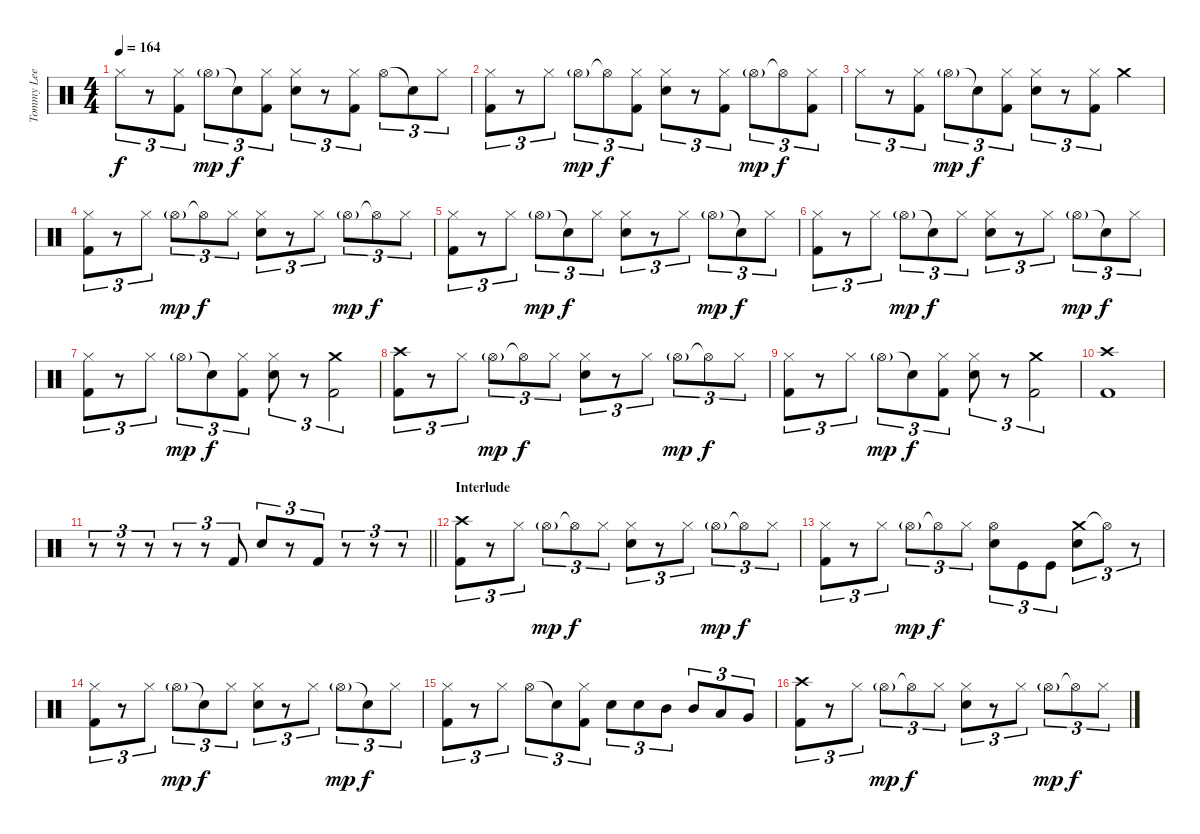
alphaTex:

\track ("Tommy Lee" "Tommy Lee") {instrument percussion}
\staff {score}
\articulation defaults
\ts (4 4)
\tempo 164
\clef neutral
\ks c "Hi-Hat (closed)".8{tu (3 2) dy f}
r.8{tu (3 2)} ("Hi-Hat (closed)" "Kick (hit) 2").8{tu (3 2)} "Hi-Hat (open)"{g}.8{tu (3 2) dy mp} "Snare (hit)"{t}.8{tu (3 2) dy f} ("Hi-Hat (closed)" "Kick (hit) 2").8{tu (3 2)} ("Hi-Hat (closed)" "Snare (hit) 2").8{tu (3 2)} r.8{tu (3 2)} ("Hi-Hat (closed)" "Kick (hit) 2").8{tu (3 2)} "Hi-Hat (open)".8{tu (3 2)} "Snare (hit)"{t}.8{tu (3 2)} "Hi-Hat (closed)".8{tu (3 2)} |
("Hi-Hat (closed)" "Kick (hit) 2").8{tu (3 2)} r.8{tu (3 2)} "Hi-Hat (closed)".8{tu (3 2)} "Hi-Hat (open)"{g}.8{tu (3 2) dy mp} "Hi-Hat (open)"{t}.8{tu (3 2) dy f} ("Hi-Hat (closed)" "Kick (hit) 2").8{tu (3 2)} ("Hi-Hat (closed)" "Snare (hit) 2").8{tu (3 2)} r.8{tu (3 2)} ("Hi-Hat (closed)" "Kick (hit) 2").8{tu (3 2)} "Hi-Hat (open)"{g}.8{tu (3 2) dy mp} "Hi-Hat (open)"{t}.8{tu (3 2) dy f} ("Hi-Hat (closed)" "Kick (hit) 2").8{tu (3 2)} |
"Hi-Hat (closed)".8{tu (3 2)} r.8{tu (3 2)} ("Hi-Hat (closed)" "Kick (hit) 2").8{tu (3 2)} "Hi-Hat (open)"{g}.8{tu (3 2) dy mp} "Snare (hit)"{t}.8{tu (3 2) dy f} ("Hi-Hat (closed)" "Kick (hit) 2").8{tu (3 2)} ("Hi-Hat (closed)" "Snare (hit) 2").8{tu (3 2)} r.8{tu (3 2)} ("Hi-Hat (closed)" "Kick (hit) 2").8{tu (3 2)} "Crash medium (hit)".4 |
("Hi-Hat (closed)" "Kick (hit) 2").8{tu (3 2)} r.8{tu (3 2)} "Hi-Hat (closed)".8{tu (3 2)} "Hi-Hat (open)"{g}.8{tu (3 2) dy mp} "Hi-Hat (open)"{t}.8{tu (3 2) dy f} "Hi-Hat (closed)".8{tu (3 2)} ("Hi-Hat (closed)" "Snare (hit) 2").8{tu (3 2)} r.8{tu (3 2)} "Hi-Hat (closed)".8{tu (3 2)} "Hi-Hat (open)"{g}.8{tu (3 2) dy mp} "Hi-Hat (open)"{t}.8{tu (3 2) dy f} "Hi-Hat (closed)".8{tu (3 2)} |
("Hi-Hat (closed)" "Kick (hit) 2").8{tu (3 2)} r.8{tu (3 2)} "Hi-Hat (closed)".8{tu (3 2)} "Hi-Hat (open)"{g}.8{tu (3 2) dy mp} "Snare (hit)"{t}.8{tu (3 2) dy f} "Hi-Hat (closed)".8{tu (3 2)} ("Hi-Hat (closed)" "Snare (hit) 2").8{tu (3 2)} r.8{tu (3 2)} "Hi-Hat (closed)".8{tu (3 2)} "Hi-Hat (open)"{g}.8{tu (3 2) dy mp} "Snare (hit)"{t}.8{tu (3 2) dy f} "Hi-Hat (closed)".8{tu (3 2)} |
("Hi-Hat (closed)" "Kick (hit) 2").8{tu (3 2)} r.8{tu (3 2)} "Hi-Hat (closed)".8{tu (3 2)} "Hi-Hat (open)"{g}.8{tu (3 2) dy mp} "Snare (hit)"{t}.8{tu (3 2) dy f} "Hi-Hat (closed)".8{tu (3 2)} ("Hi-Hat (closed)" "Snare (hit) 2").8{tu (3 2)} r.8{tu (3 2)} "Hi-Hat (closed)".8{tu (3 2)} "Hi-Hat (open)"{g}.8{tu (3 2) dy mp} "Snare (hit)"{t}.8{tu (3 2) dy f} "Hi-Hat (closed)".8{tu (3 2)} |
("Hi-Hat (closed)" "Kick (hit) 2").8{tu (3 2)} r.8{tu (3 2)} "Hi-Hat (closed)".8{tu (3 2)} "Hi-Hat (open)"{g}.8{tu (3 2) dy mp} "Snare (hit)"{t}.8{tu (3 2) dy f} ("Hi-Hat (closed)" "Kick (hit) 2").8{tu (3 2)} ("Hi-Hat (closed)" "Snare (hit) 2").8{tu (3 2)} r.8{tu (3 2)} ("Crash medium (hit)" "Kick (hit) 2").2{tu (3 2)} |
("Crash high (hit)" "Kick (hit) 2").8{tu (3 2)} r.8{tu (3 2)} "Hi-Hat (closed)".8{tu (3 2)} "Hi-Hat (open)"{g}.8{tu (3 2) dy mp} "Hi-Hat (open)"{t}.8{tu (3 2) dy f} "Hi-Hat (closed)".8{tu (3 2)} ("Hi-Hat (closed)" "Snare (hit) 2").8{tu (3 2)} r.8{tu (3 2)} "Hi-Hat (closed)".8{tu (3 2)} "Hi-Hat (open)"{g}.8{tu (3 2) dy mp} "Hi-Hat (open)"{t}.8{tu (3 2) dy f} "Hi-Hat (closed)".8{tu (3 2)} |
("Hi-Hat (closed)" "Kick (hit) 2").8{tu (3 2)} r.8{tu (3 2)} "Hi-Hat (closed)".8{tu (3 2)} "Hi-Hat (open)"{g}.8{tu (3 2) dy mp} "Snare (hit)"{t}.8{tu (3 2) dy f} ("Hi-Hat (closed)" "Kick (hit) 2").8{tu (3 2)} ("Hi-Hat (closed)" "Snare (hit) 2").8{tu (3 2)} r.8{tu (3 2)} ("Crash medium (hit)" "Kick (hit) 2").2{tu (3 2)} |
("Crash high (hit)" "Kick (hit) 2").1 |
\barLineRight lightlight
r.8{tu (3 2)} r.8{tu (3 2)} r.8{tu (3 2)} r.8{tu (3 2)} r.8{tu (3 2)} "Kick (hit) 2".8{tu (3 2)} "Snare (hit) 2".8{tu (3 2)} r.8{tu (3 2)} "Kick (hit) 2".8{tu (3 2)} r.8{tu (3 2)} r.8{tu (3 2)} r.8{tu (3 2)} |
\section ("" "Interlude")
("Crash high (hit)" "Kick (hit) 2").8{tu (3 2)} r.8{tu (3 2)} "Hi-Hat (closed)".8{tu (3 2)} "Hi-Hat (open)"{g}.8{tu (3 2) dy mp} "Hi-Hat (open)"{t}.8{tu (3 2) dy f} "Hi-Hat (closed)".8{tu (3 2)} ("Hi-Hat (closed)" "Snare (hit) 2").8{tu (3 2)} r.8{tu (3 2)} "Hi-Hat (closed)".8{tu (3 2)} "Hi-Hat (open)"{g}.8{tu (3 2) dy mp} "Hi-Hat (open)"{t}.8{tu (3 2) dy f} "Hi-Hat (closed)".8{tu (3 2)} |
("Hi-Hat (closed)" "Kick (hit) 2").8{tu (3 2)} r.8{tu (3 2)} "Hi-Hat (closed)".8{tu (3 2)} "Hi-Hat (open)"{g}.8{tu (3 2) dy mp} "Hi-Hat (open)"{t}.8{tu (3 2) dy f} "Hi-Hat (closed)".8{tu (3 2)} ("Hi-Hat (open)" "Snare (hit) 2").8{tu (3 2)} "Kick (hit)".8{tu (3 2)} "Kick (hit)".8{tu (3 2)} ("Crash medium (hit)" "Snare (hit) 2").8{tu (3 2)} "Hi-Hat (open)"{t}.8{tu (3 2)} r.8{tu (3 2)} |
("Hi-Hat (closed)" "Kick (hit) 2").8{tu (3 2)} r.8{tu (3 2)} "Hi-Hat (closed)".8{tu (3 2)} "Hi-Hat (open)"{g}.8{tu (3 2) dy mp} "Snare (hit)"{t}.8{tu (3 2) dy f} "Hi-Hat (closed)".8{tu (3 2)} ("Hi-Hat (closed)" "Snare (hit) 2").8{tu (3 2)} r.8{tu (3 2)} "Hi-Hat (closed)".8{tu (3 2)} "Hi-Hat (open)"{g}.8{tu (3 2) dy mp} "Snare (hit)"{t}.8{tu (3 2) dy f} "Hi-Hat (closed)".8{tu (3 2)} |
("Hi-Hat (closed)" "Kick (hit) 2").8{tu (3 2)} r.8{tu (3 2)} "Hi-Hat (closed)".8{tu (3 2)} "Hi-Hat (open)".8{tu (3 2)} "Snare (hit)"{t}.8{tu (3 2)} ("Hi-Hat (closed)" "Kick (hit) 2").8{tu (3 2)} "Snare (hit) 2".8{tu (3 2)} "Snare (hit) 2".8{tu (3 2)} "Mid Tom (hit)".8{tu (3 2)} "Mid Tom (hit)".8{tu (3 2)} "Low Tom (hit)".8{tu (3 2)} "Very Low Tom (hit)".8{tu (3 2)} |
("Crash high (hit)" "Kick (hit) 2").8{tu (3 2)} r.8{tu (3 2)} "Hi-Hat (closed)".8{tu (3 2)} "Hi-Hat (open)"{g}.8{tu (3 2) dy mp} "Hi-Hat (open)"{t}.8{tu (3 2) dy f} "Hi-Hat (closed)".8{tu (3 2)} ("Hi-Hat (closed)" "Snare (hit) 2").8{tu (3 2)} r.8{tu (3 2)} "Hi-Hat (closed)".8{tu (3 2)} "Hi-Hat (open)"{g}.8{tu (3 2) dy mp} "Hi-Hat (open)"{t}.8{tu (3 2) dy f} "Hi-Hat (closed)".8{tu (3 2)}
